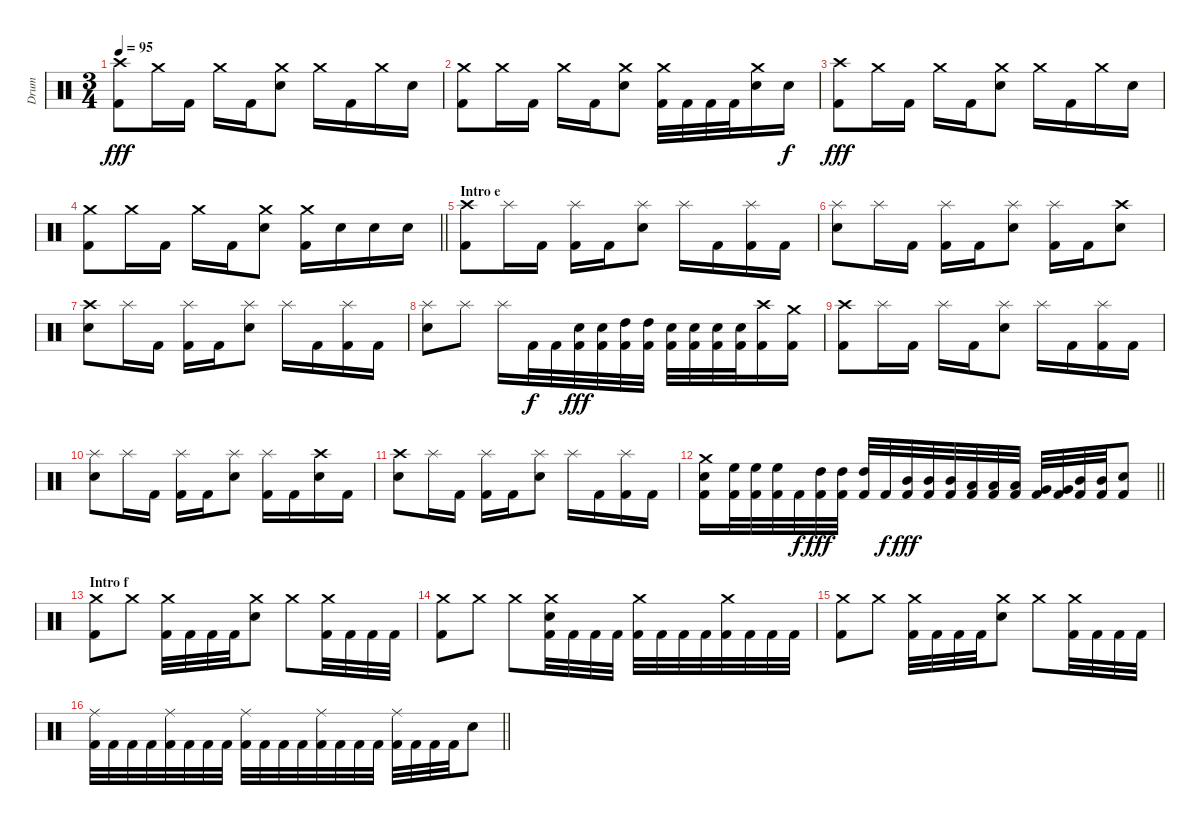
\track ("Drum" "Drum") {instrument percussion}
\staff {score}
\articulation defaults
\ts (3 4)
\tempo 95
\clef neutral
\ks c
("Crash high (hit)" "Kick (hit) 2").8{dy fff} "Crash medium (hit)".16 "Kick (hit) 2".16 "Crash medium (hit)".16 "Kick (hit) 2".16 ("Crash medium (hit)" "Electric Snare (hit)").8 "Crash medium (hit)".16 "Kick (hit) 2".16 "Crash medium (hit)".16 "Electric Snare (hit)".16 |
("Crash medium (hit)" "Kick (hit) 2").8 "Crash medium (hit)".16 "Kick (hit) 2".16 "Crash medium (hit)".16 "Kick (hit) 2".16 ("Crash medium (hit)" "Electric Snare (hit)").8 ("Crash medium (hit)" "Kick (hit) 2").32 "Kick (hit) 2".32 "Kick (hit) 2".32 "Kick (hit) 2".32 ("Crash medium (hit)" "Electric Snare (hit)").16 "Electric Snare (hit)".16{dy f} |
("Crash high (hit)" "Kick (hit) 2").8{dy fff} "Crash medium (hit)".16 "Kick (hit) 2".16 "Crash medium (hit)".16 "Kick (hit) 2".16 ("Crash medium (hit)" "Electric Snare (hit)").8 "Crash medium (hit)".16 "Kick (hit) 2".16 "Crash medium (hit)".16 "Electric Snare (hit)".16 |
\barLineRight lightlight
("Crash medium (hit)" "Kick (hit) 2").8 "Crash medium (hit)".16 "Kick (hit) 2".16 "Crash medium (hit)".16 "Kick (hit) 2".16 ("Crash medium (hit)" "Electric Snare (hit)").8 ("Crash medium (hit)" "Kick (hit) 2").16 "Electric Snare (hit)".16 "Electric Snare (hit)".16 "Electric Snare (hit)".16 |
\section ("" "Intro e")
("Crash high (hit)" "Kick (hit) 2").8 "Splash (hit)".16 "Kick (hit) 2".16 ("Splash (hit)" "Kick (hit) 2").16 "Kick (hit) 2".16 ("Splash (hit)" "Electric Snare (hit)").8 "Splash (hit)".16 "Kick (hit) 2".16 ("Splash (hit)" "Kick (hit) 2").16 "Kick (hit) 2".16 |
("Splash (hit)" "Electric Snare (hit)").8 "Splash (hit)".16 "Kick (hit) 2".16 ("Splash (hit)" "Kick (hit) 2").16 "Kick (hit) 2".16 ("Splash (hit)" "Electric Snare (hit)").8 ("Splash (hit)" "Kick (hit) 2").16 "Kick (hit) 2".16 ("Crash high (hit)" "Electric Snare (hit)").8 |
("Crash high (hit)" "Electric Snare (hit)").8 "Splash (hit)".16 "Kick (hit) 2".16 ("Splash (hit)" "Kick (hit) 2").16 "Kick (hit) 2".16 ("Splash (hit)" "Electric Snare (hit)").8 "Splash (hit)".16 "Kick (hit) 2".16 ("Splash (hit)" "Kick (hit) 2").16 "Kick (hit) 2".16 |
("Splash (hit)" "Electric Snare (hit)").8 "Splash (hit)".8 "Splash (hit)".16 "Kick (hit) 2".32{dy f} "Kick (hit) 2".32 ("Electric Snare (hit)" "Kick (hit) 2").32{dy fff} ("Electric Snare (hit)" "Kick (hit) 2").32 ("High Tom (hit)" "Kick (hit) 2").32 ("High Tom (hit)" "Kick (hit) 2").32 ("Electric Snare (hit)" "Kick (hit) 2").32 ("Electric Snare (hit)" "Kick (hit) 2").32 ("Electric Snare (hit)" "Kick (hit) 2").32 ("Electric Snare (hit)" "Kick (hit) 2").32 ("Crash high (hit)" "Kick (hit) 2").16 ("Crash medium (hit)" "Kick (hit) 2").16 |
("Crash high (hit)" "Kick (hit) 2").8 "Splash (hit)".16 "Kick (hit) 2".16 "Splash (hit)".16 "Kick (hit) 2".16 ("Splash (hit)" "Electric Snare (hit)").8 "Splash (hit)".16 "Kick (hit) 2".16 ("Splash (hit)" "Kick (hit) 2").16 "Kick (hit) 2".16 |
("Splash (hit)" "Electric Snare (hit)").8 "Splash (hit)".16 "Kick (hit) 2".16 ("Splash (hit)" "Kick (hit) 2").16 "Kick (hit) 2".16 ("Splash (hit)" "Electric Snare (hit)").8 ("Splash (hit)" "Kick (hit) 2").16 "Kick (hit) 2".16 ("Crash high (hit)" "Electric Snare (hit)").16 "Kick (hit) 2".16 |
("Crash high (hit)" "Electric Snare (hit)").8 "Splash (hit)".16 "Kick (hit) 2".16 ("Splash (hit)" "Kick (hit) 2").16 "Kick (hit) 2".16 ("Splash (hit)" "Electric Snare (hit)").8 "Splash (hit)".16 "Kick (hit) 2".16 ("Splash (hit)" "Kick (hit) 2").16 "Kick (hit) 2".16 |
\barLineRight lightlight
("Crash medium (hit)" "Electric Snare (hit)" "Kick (hit) 2").16 ("High Floor Tom (hit)" "Kick (hit) 2").32 ("High Floor Tom (hit)" "Kick (hit) 2").32 ("High Floor Tom (hit)" "Kick (hit) 2").32 "Kick (hit) 2".32{dy f} ("High Tom (hit)" "Kick (hit) 2").32{dy fff} ("High Tom (hit)" "Kick (hit) 2").32 ("High Tom (hit)" "Kick (hit) 2").32 "Kick (hit) 2".32{dy f} ("Mid Tom (hit)" "Kick (hit) 2").32{dy fff} ("Mid Tom (hit)" "Kick (hit) 2").32 ("Mid Tom (hit)" "Kick (hit) 2").32 ("Low Tom (hit)" "Kick (hit) 2").32 ("Low Tom (hit)" "Kick (hit) 2").32 ("Low Tom (hit)" "Kick (hit) 2").32 ("Very Low Tom (hit)" "Kick (hit) 2").32 ("Very Low Tom (hit)" "Kick (hit) 2").32 ("Mid Tom (hit)" "Kick (hit) 2").32 ("Mid Tom (hit)" "Kick (hit) 2").32 ("Electric Snare (hit)" "Kick (hit) 2").8 |
\section ("" "Intro f")
("Crash medium (hit)" "Kick (hit) 2").8 "Crash medium (hit)".8 ("Crash medium (hit)" "Kick (hit) 2").32 "Kick (hit) 2".32 "Kick (hit) 2".32 "Kick (hit) 2".32 ("Crash medium (hit)" "Electric Snare (hit)").8 "Crash medium (hit)".8 ("Crash medium (hit)" "Kick (hit) 2").32 "Kick (hit) 2".32 "Kick (hit) 2".32 "Kick (hit) 2".32 |
("Crash medium (hit)" "Kick (hit) 2").8 "Crash medium (hit)".8 "Crash medium (hit)".8 ("Crash medium (hit)" "Electric Snare (hit)" "Kick (hit) 2").32 "Kick (hit) 2".32 "Kick (hit) 2".32 "Kick (hit) 2".32 ("Crash medium (hit)" "Kick (hit) 2").32 "Kick (hit) 2".32 "Kick (hit) 2".32 "Kick (hit) 2".32 ("Crash medium (hit)" "Kick (hit) 2").32 "Kick (hit) 2".32 "Kick (hit) 2".32 "Kick (hit) 2".32 |
("Crash medium (hit)" "Kick (hit) 2").8 "Crash medium (hit)".8 ("Crash medium (hit)" "Kick (hit) 2").32 "Kick (hit) 2".32 "Kick (hit) 2".32 "Kick (hit) 2".32 ("Crash medium (hit)" "Electric Snare (hit)").8 "Crash medium (hit)".8 ("Crash medium (hit)" "Kick (hit) 2").32 "Kick (hit) 2".32 "Kick (hit) 2".32 "Kick (hit) 2".32 |
\barLineRight lightlight
("Ride (middle)" "Kick (hit) 2").32 "Kick (hit) 2".32 "Kick (hit) 2".32 "Kick (hit) 2".32 ("Ride (middle)" "Kick (hit) 2").32 "Kick (hit) 2".32 "Kick (hit) 2".32 "Kick (hit) 2".32 ("Ride (middle)" "Kick (hit) 2").32 "Kick (hit) 2".32 "Kick (hit) 2".32 "Kick (hit) 2".32 ("Ride (middle)" "Kick (hit) 2").32 "Kick (hit) 2".32 "Kick (hit) 2".32 "Kick (hit) 2".32 ("Ride (middle)" "Kick (hit) 2").32 "Kick (hit) 2".32 "Kick (hit) 2".32 "Kick (hit) 2".32 "Electric Snare (hit)".8
